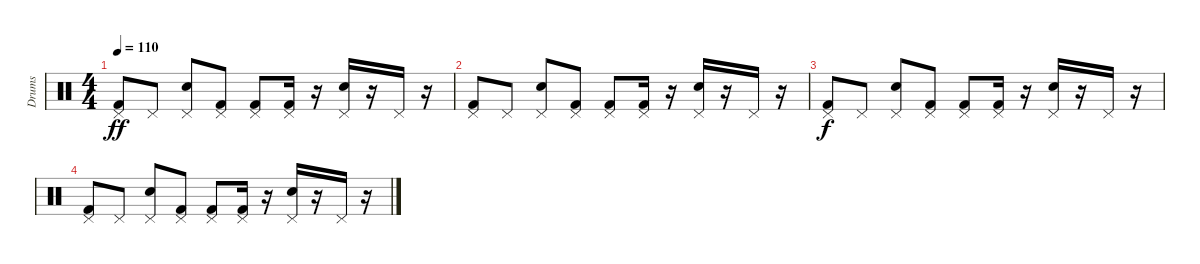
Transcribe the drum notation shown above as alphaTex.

\track ("Drums" "Drums") {instrument percussion}
\staff {score}
\articulation defaults
\ts (4 4)
\tempo 110
\clef neutral
\ks c
("Pedal Hi-Hat (hit)" "Kick (hit) 2").8{dy ff} "Pedal Hi-Hat (hit)".8 ("Pedal Hi-Hat (hit)" "Electric Snare (hit)").8 ("Pedal Hi-Hat (hit)" "Kick (hit) 2").8 ("Pedal Hi-Hat (hit)" "Kick (hit) 2").8 ("Pedal Hi-Hat (hit)" "Kick (hit) 2").16 r.16 ("Pedal Hi-Hat (hit)" "Electric Snare (hit)").16 r.16 "Pedal Hi-Hat (hit)".16 r.16 |
("Pedal Hi-Hat (hit)" "Kick (hit) 2").8 "Pedal Hi-Hat (hit)".8 ("Pedal Hi-Hat (hit)" "Electric Snare (hit)").8 ("Pedal Hi-Hat (hit)" "Kick (hit) 2").8 ("Pedal Hi-Hat (hit)" "Kick (hit) 2").8 ("Pedal Hi-Hat (hit)" "Kick (hit) 2").16 r.16 ("Pedal Hi-Hat (hit)" "Electric Snare (hit)").16 r.16 "Pedal Hi-Hat (hit)".16 r.16 |
("Pedal Hi-Hat (hit)" "Kick (hit) 2").8{dy f} "Pedal Hi-Hat (hit)".8 ("Pedal Hi-Hat (hit)" "Electric Snare (hit)").8 ("Pedal Hi-Hat (hit)" "Kick (hit) 2").8 ("Pedal Hi-Hat (hit)" "Kick (hit) 2").8 ("Pedal Hi-Hat (hit)" "Kick (hit) 2").16 r.16 ("Pedal Hi-Hat (hit)" "Electric Snare (hit)").16 r.16 "Pedal Hi-Hat (hit)".16 r.16 |
("Pedal Hi-Hat (hit)" "Kick (hit) 2").8 "Pedal Hi-Hat (hit)".8 ("Pedal Hi-Hat (hit)" "Electric Snare (hit)").8 ("Pedal Hi-Hat (hit)" "Kick (hit) 2").8 ("Pedal Hi-Hat (hit)" "Kick (hit) 2").8 ("Pedal Hi-Hat (hit)" "Kick (hit) 2").16 r.16 ("Pedal Hi-Hat (hit)" "Electric Snare (hit)").16 r.16 "Pedal Hi-Hat (hit)".16 r.16
